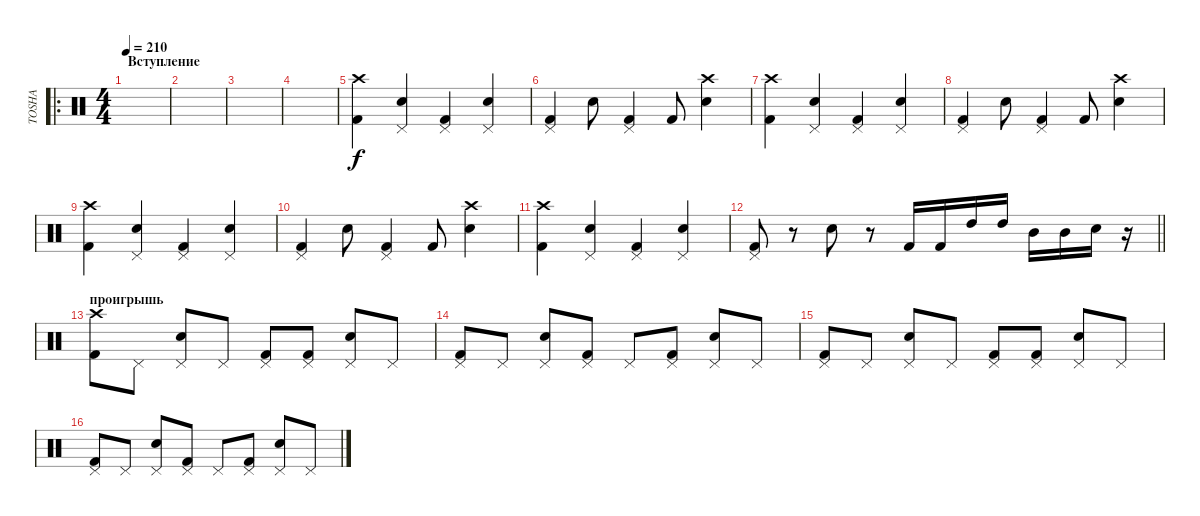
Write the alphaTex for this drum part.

\track ("TOSHA" "TOSHA") {instrument percussion}
\staff {score}
\articulation defaults
\ro
\ts (4 4)
\section ("" "Вступление")
\tempo 210
\clef neutral
\ks c
|
|
|
|
("Kick (hit) 2" "Crash high (hit)").4 ("Electric Snare (hit)" "Pedal Hi-Hat (hit)").4 ("Kick (hit) 2" "Pedal Hi-Hat (hit)").4 ("Electric Snare (hit)" "Pedal Hi-Hat (hit)").4 |
("Kick (hit) 2" "Pedal Hi-Hat (hit)").4 "Electric Snare (hit)".8 ("Kick (hit) 2" "Pedal Hi-Hat (hit)").4 "Kick (hit) 2".8 ("Electric Snare (hit)" "Crash high (hit)").4 |
("Kick (hit) 2" "Crash high (hit)").4 ("Electric Snare (hit)" "Pedal Hi-Hat (hit)").4 ("Kick (hit) 2" "Pedal Hi-Hat (hit)").4 ("Electric Snare (hit)" "Pedal Hi-Hat (hit)").4 |
("Kick (hit) 2" "Pedal Hi-Hat (hit)").4 "Electric Snare (hit)".8 ("Kick (hit) 2" "Pedal Hi-Hat (hit)").4 "Kick (hit) 2".8 ("Electric Snare (hit)" "Crash high (hit)").4 |
("Kick (hit) 2" "Crash high (hit)").4 ("Electric Snare (hit)" "Pedal Hi-Hat (hit)").4 ("Kick (hit) 2" "Pedal Hi-Hat (hit)").4 ("Electric Snare (hit)" "Pedal Hi-Hat (hit)").4 |
("Kick (hit) 2" "Pedal Hi-Hat (hit)").4 "Electric Snare (hit)".8 ("Kick (hit) 2" "Pedal Hi-Hat (hit)").4 "Kick (hit) 2".8 ("Electric Snare (hit)" "Crash high (hit)").4 |
("Kick (hit) 2" "Crash high (hit)").4 ("Electric Snare (hit)" "Pedal Hi-Hat (hit)").4 ("Kick (hit) 2" "Pedal Hi-Hat (hit)").4 ("Electric Snare (hit)" "Pedal Hi-Hat (hit)").4 |
\barLineRight lightlight
("Kick (hit) 2" "Pedal Hi-Hat (hit)").8 r.8 "Electric Snare (hit)".8 r.8 "Kick (hit) 2".16 "Kick (hit) 2".16 "High Tom (hit)".16 "High Tom (hit)".16 "Mid Tom (hit)".16 "Mid Tom (hit)".16 "Electric Snare (hit)".16 r.16 |
\section ("" "проигрышь")
("Kick (hit) 2" "Crash high (hit)").8 "Pedal Hi-Hat (hit)".8 ("Electric Snare (hit)" "Pedal Hi-Hat (hit)").8 "Pedal Hi-Hat (hit)".8 ("Kick (hit) 2" "Pedal Hi-Hat (hit)").8 ("Kick (hit) 2" "Pedal Hi-Hat (hit)").8 ("Electric Snare (hit)" "Pedal Hi-Hat (hit)").8 "Pedal Hi-Hat (hit)".8 |
("Kick (hit) 2" "Pedal Hi-Hat (hit)").8 "Pedal Hi-Hat (hit)".8 ("Electric Snare (hit)" "Pedal Hi-Hat (hit)").8 ("Kick (hit) 2" "Pedal Hi-Hat (hit)").8 "Pedal Hi-Hat (hit)".8 ("Kick (hit) 2" "Pedal Hi-Hat (hit)").8 ("Electric Snare (hit)" "Pedal Hi-Hat (hit)").8 "Pedal Hi-Hat (hit)".8 |
("Kick (hit) 2" "Pedal Hi-Hat (hit)").8 "Pedal Hi-Hat (hit)".8 ("Electric Snare (hit)" "Pedal Hi-Hat (hit)").8 "Pedal Hi-Hat (hit)".8 ("Kick (hit) 2" "Pedal Hi-Hat (hit)").8 ("Kick (hit) 2" "Pedal Hi-Hat (hit)").8 ("Electric Snare (hit)" "Pedal Hi-Hat (hit)").8 "Pedal Hi-Hat (hit)".8 |
("Kick (hit) 2" "Pedal Hi-Hat (hit)").8 "Pedal Hi-Hat (hit)".8 ("Electric Snare (hit)" "Pedal Hi-Hat (hit)").8 ("Kick (hit) 2" "Pedal Hi-Hat (hit)").8 "Pedal Hi-Hat (hit)".8 ("Kick (hit) 2" "Pedal Hi-Hat (hit)").8 ("Electric Snare (hit)" "Pedal Hi-Hat (hit)").8 "Pedal Hi-Hat (hit)".8
